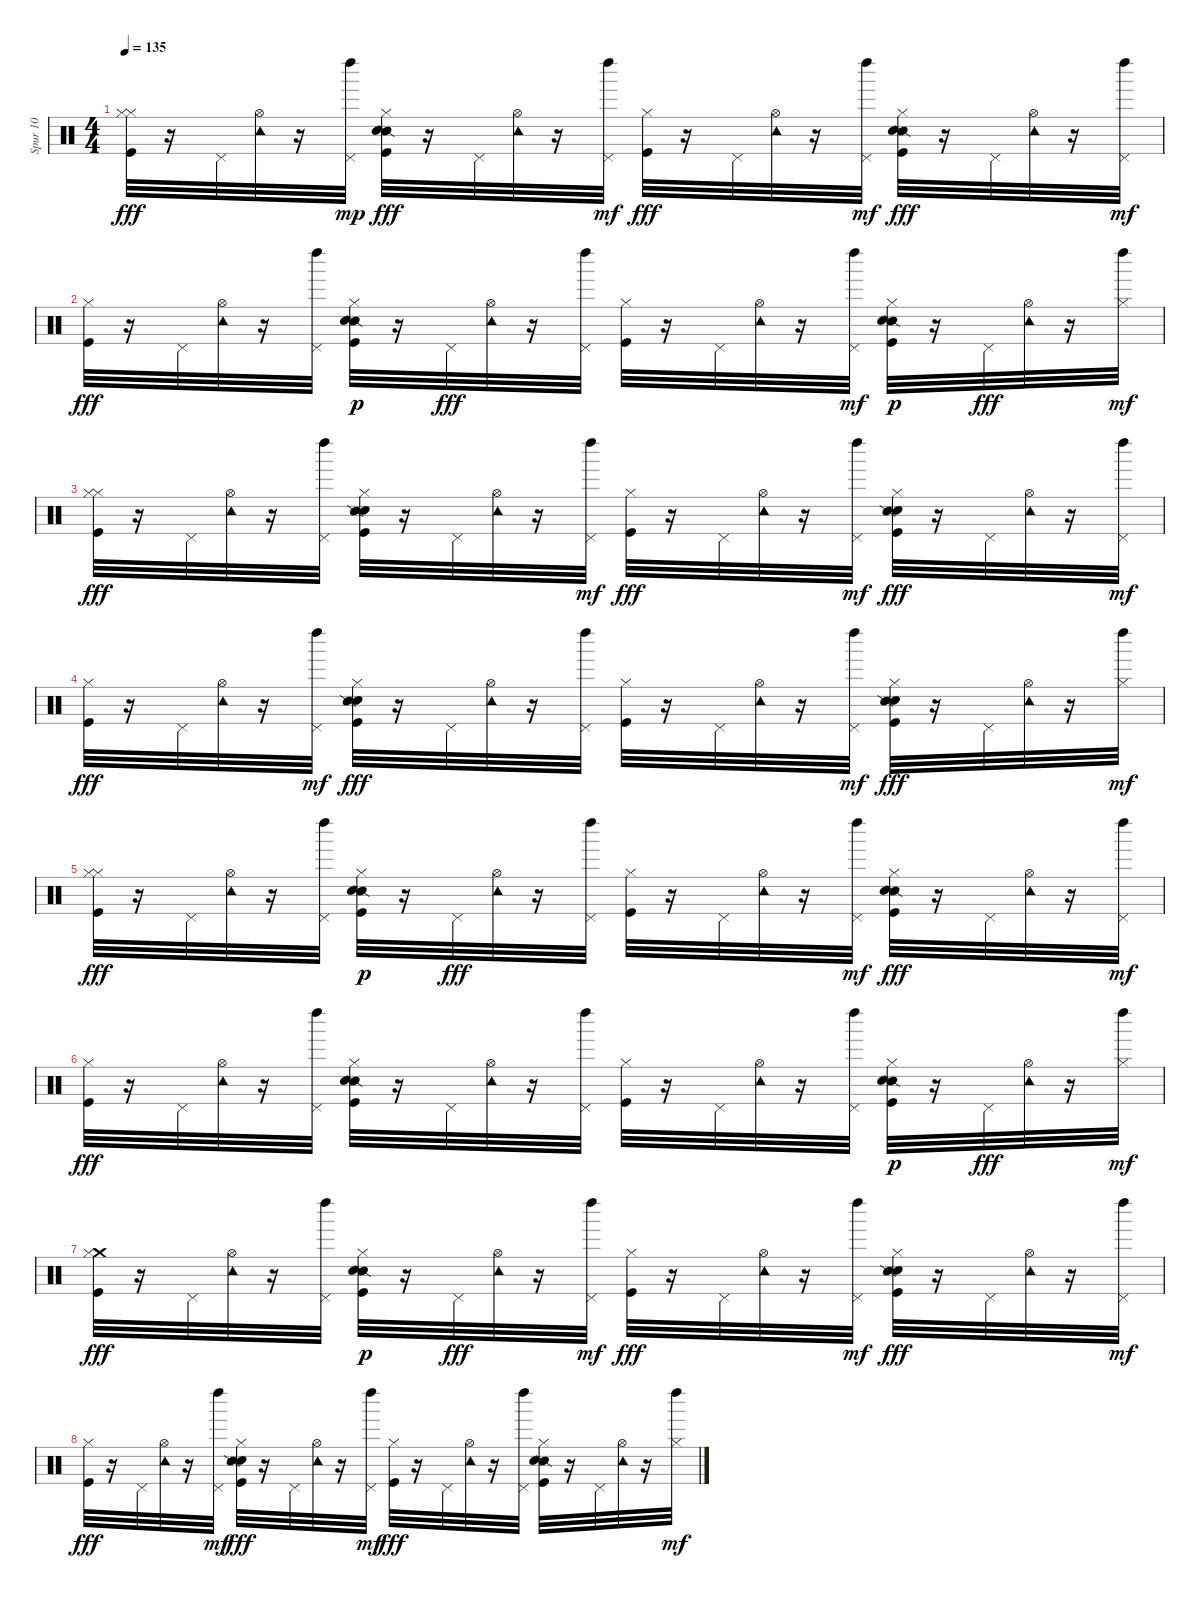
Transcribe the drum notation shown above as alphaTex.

\track ("Spur 10" "Spur 10") {instrument percussion}
\staff {score}
\articulation defaults
\ts (4 4)
\tempo 135
\clef neutral
\ks c
("Hi-Hat (closed)" "Kick (hit)" "Hi-Hat (closed)").32{dy fff} r.16 "Pedal Hi-Hat (hit)".32 ("Hi-Hat (open)" "Tambourine (hit)").32 r.16 ("Pedal Hi-Hat (hit)" "Left Maraca (hit)").32{dy mp} ("Snare (side stick) 2" "Hand Clap (hit)" "Hi-Hat (closed)" "Kick (hit)").32{dy fff} r.16 "Pedal Hi-Hat (hit)".32 ("Tambourine (hit)" "Hi-Hat (open)").32 r.16 ("Pedal Hi-Hat (hit)" "Left Maraca (hit)").32{dy mf} ("Kick (hit)" "Hi-Hat (closed)").32{dy fff} r.16 "Pedal Hi-Hat (hit)".32 ("Hi-Hat (open)" "Tambourine (hit)").32 r.16 ("Pedal Hi-Hat (hit)" "Left Maraca (hit)").32{dy mf} ("Snare (side stick) 2" "Hand Clap (hit)" "Kick (hit)" "Hi-Hat (closed)").32{dy fff} r.16 "Pedal Hi-Hat (hit)".32 ("Tambourine (hit)" "Hi-Hat (open)").32 r.16 ("Left Maraca (hit)" "Pedal Hi-Hat (hit)").32{dy mf} |
("Hi-Hat (closed)" "Kick (hit)").32{dy fff} r.16 "Pedal Hi-Hat (hit)".32 ("Tambourine (hit)" "Hi-Hat (open)").32 r.16 ("Left Maraca (hit)" "Pedal Hi-Hat (hit)").32 ("Snare (side stick) 2" "Kick (hit)" "Hi-Hat (closed)" "Hand Clap (hit)").32{dy p} r.16 "Pedal Hi-Hat (hit)".32{dy fff} ("Hi-Hat (open)" "Tambourine (hit)").32 r.16 ("Left Maraca (hit)" "Pedal Hi-Hat (hit)").32 ("Kick (hit)" "Hi-Hat (closed)").32 r.16 "Pedal Hi-Hat (hit)".32 ("Tambourine (hit)" "Hi-Hat (open)").32 r.16 ("Pedal Hi-Hat (hit)" "Left Maraca (hit)").32{dy mf} ("Snare (side stick) 2" "Kick (hit)" "Hi-Hat (closed)" "Hand Clap (hit)").32{dy p} r.16 "Pedal Hi-Hat (hit)".32{dy fff} ("Hi-Hat (open)" "Tambourine (hit)").32 r.16 ("Hi-Hat (closed)" "Left Maraca (hit)").32{dy mf} |
("Hi-Hat (closed)" "Kick (hit)" "Hi-Hat (closed)").32{dy fff} r.16 "Pedal Hi-Hat (hit)".32 ("Tambourine (hit)" "Hi-Hat (open)").32 r.16 ("Left Maraca (hit)" "Pedal Hi-Hat (hit)").32 ("Hand Clap (hit)" "Hi-Hat (closed)" "Kick (hit)" "Snare (side stick) 2").32 r.16 "Pedal Hi-Hat (hit)".32 ("Tambourine (hit)" "Hi-Hat (open)").32 r.16 ("Pedal Hi-Hat (hit)" "Left Maraca (hit)").32{dy mf} ("Kick (hit)" "Hi-Hat (closed)").32{dy fff} r.16 "Pedal Hi-Hat (hit)".32 ("Tambourine (hit)" "Hi-Hat (open)").32 r.16 ("Pedal Hi-Hat (hit)" "Left Maraca (hit)").32{dy mf} ("Hand Clap (hit)" "Hi-Hat (closed)" "Kick (hit)" "Snare (side stick) 2").32{dy fff} r.16 "Pedal Hi-Hat (hit)".32 ("Tambourine (hit)" "Hi-Hat (open)").32 r.16 ("Pedal Hi-Hat (hit)" "Left Maraca (hit)").32{dy mf} |
("Hi-Hat (closed)" "Kick (hit)").32{dy fff} r.16 "Pedal Hi-Hat (hit)".32 ("Hi-Hat (open)" "Tambourine (hit)").32 r.16 ("Pedal Hi-Hat (hit)" "Left Maraca (hit)").32{dy mf} ("Hand Clap (hit)" "Snare (side stick) 2" "Kick (hit)" "Hi-Hat (closed)").32{dy fff} r.16 "Pedal Hi-Hat (hit)".32 ("Tambourine (hit)" "Hi-Hat (open)").32 r.16 ("Left Maraca (hit)" "Pedal Hi-Hat (hit)").32 ("Kick (hit)" "Hi-Hat (closed)").32 r.16 "Pedal Hi-Hat (hit)".32 ("Tambourine (hit)" "Hi-Hat (open)").32 r.16 ("Pedal Hi-Hat (hit)" "Left Maraca (hit)").32{dy mf} ("Hand Clap (hit)" "Hi-Hat (closed)" "Kick (hit)" "Snare (side stick) 2").32{dy fff} r.16 "Pedal Hi-Hat (hit)".32 ("Hi-Hat (open)" "Tambourine (hit)").32 r.16 ("Hi-Hat (closed)" "Left Maraca (hit)").32{dy mf} |
("Kick (hit)" "Hi-Hat (closed)" "Hi-Hat (closed)").32{dy fff} r.16 "Pedal Hi-Hat (hit)".32 ("Tambourine (hit)" "Hi-Hat (open)").32 r.16 ("Left Maraca (hit)" "Pedal Hi-Hat (hit)").32 ("Snare (side stick) 2" "Kick (hit)" "Hi-Hat (closed)" "Hand Clap (hit)").32{dy p} r.16 "Pedal Hi-Hat (hit)".32{dy fff} ("Tambourine (hit)" "Hi-Hat (open)").32 r.16 ("Left Maraca (hit)" "Pedal Hi-Hat (hit)").32 ("Kick (hit)" "Hi-Hat (closed)").32 r.16 "Pedal Hi-Hat (hit)".32 ("Hi-Hat (open)" "Tambourine (hit)").32 r.16 ("Pedal Hi-Hat (hit)" "Left Maraca (hit)").32{dy mf} ("Hi-Hat (closed)" "Snare (side stick) 2" "Hand Clap (hit)" "Kick (hit)").32{dy fff} r.16 "Pedal Hi-Hat (hit)".32 ("Hi-Hat (open)" "Tambourine (hit)").32 r.16 ("Left Maraca (hit)" "Pedal Hi-Hat (hit)").32{dy mf} |
("Kick (hit)" "Hi-Hat (closed)").32{dy fff} r.16 "Pedal Hi-Hat (hit)".32 ("Hi-Hat (open)" "Tambourine (hit)").32 r.16 ("Left Maraca (hit)" "Pedal Hi-Hat (hit)").32 ("Kick (hit)" "Snare (side stick) 2" "Hand Clap (hit)" "Hi-Hat (closed)").32 r.16 "Pedal Hi-Hat (hit)".32 ("Tambourine (hit)" "Hi-Hat (open)").32 r.16 ("Left Maraca (hit)" "Pedal Hi-Hat (hit)").32 ("Kick (hit)" "Hi-Hat (closed)").32 r.16 "Pedal Hi-Hat (hit)".32 ("Hi-Hat (open)" "Tambourine (hit)").32 r.16 ("Left Maraca (hit)" "Pedal Hi-Hat (hit)").32 ("Kick (hit)" "Hi-Hat (closed)" "Snare (side stick) 2" "Hand Clap (hit)").32{dy p} r.16 "Pedal Hi-Hat (hit)".32{dy fff} ("Tambourine (hit)" "Hi-Hat (open)").32 r.16 ("Hi-Hat (closed)" "Left Maraca (hit)").32{dy mf} |
("Kick (hit)" "Crash medium (hit)" "Hi-Hat (closed)").32{dy fff} r.16 "Pedal Hi-Hat (hit)".32 ("Tambourine (hit)" "Hi-Hat (open)").32 r.16 ("Left Maraca (hit)" "Pedal Hi-Hat (hit)").32 ("Hi-Hat (closed)" "Snare (side stick) 2" "Kick (hit)" "Hand Clap (hit)").32{dy p} r.16 "Pedal Hi-Hat (hit)".32{dy fff} ("Tambourine (hit)" "Hi-Hat (open)").32 r.16 ("Pedal Hi-Hat (hit)" "Left Maraca (hit)").32{dy mf} ("Hi-Hat (closed)" "Kick (hit)").32{dy fff} r.16 "Pedal Hi-Hat (hit)".32 ("Tambourine (hit)" "Hi-Hat (open)").32 r.16 ("Pedal Hi-Hat (hit)" "Left Maraca (hit)").32{dy mf} ("Kick (hit)" "Hand Clap (hit)" "Hi-Hat (closed)" "Snare (side stick) 2").32{dy fff} r.16 "Pedal Hi-Hat (hit)".32 ("Tambourine (hit)" "Hi-Hat (open)").32 r.16 ("Left Maraca (hit)" "Pedal Hi-Hat (hit)").32{dy mf} |
("Hi-Hat (closed)" "Kick (hit)").32{dy fff} r.16 "Pedal Hi-Hat (hit)".32 ("Tambourine (hit)" "Hi-Hat (open)").32 r.16 ("Pedal Hi-Hat (hit)" "Left Maraca (hit)").32{dy mf} ("Kick (hit)" "Hand Clap (hit)" "Hi-Hat (closed)" "Snare (side stick) 2").32{dy fff} r.16 "Pedal Hi-Hat (hit)".32 ("Tambourine (hit)" "Hi-Hat (open)").32 r.16 ("Pedal Hi-Hat (hit)" "Left Maraca (hit)").32{dy mf} ("Hi-Hat (closed)" "Kick (hit)").32{dy fff} r.16 "Pedal Hi-Hat (hit)".32 ("Tambourine (hit)" "Hi-Hat (open)").32 r.16 ("Left Maraca (hit)" "Pedal Hi-Hat (hit)").32 ("Snare (side stick) 2" "Hand Clap (hit)" "Kick (hit)" "Hi-Hat (closed)").32 r.16 "Pedal Hi-Hat (hit)".32 ("Hi-Hat (open)" "Tambourine (hit)").32 r.16 ("Left Maraca (hit)" "Hi-Hat (closed)").32{dy mf}
